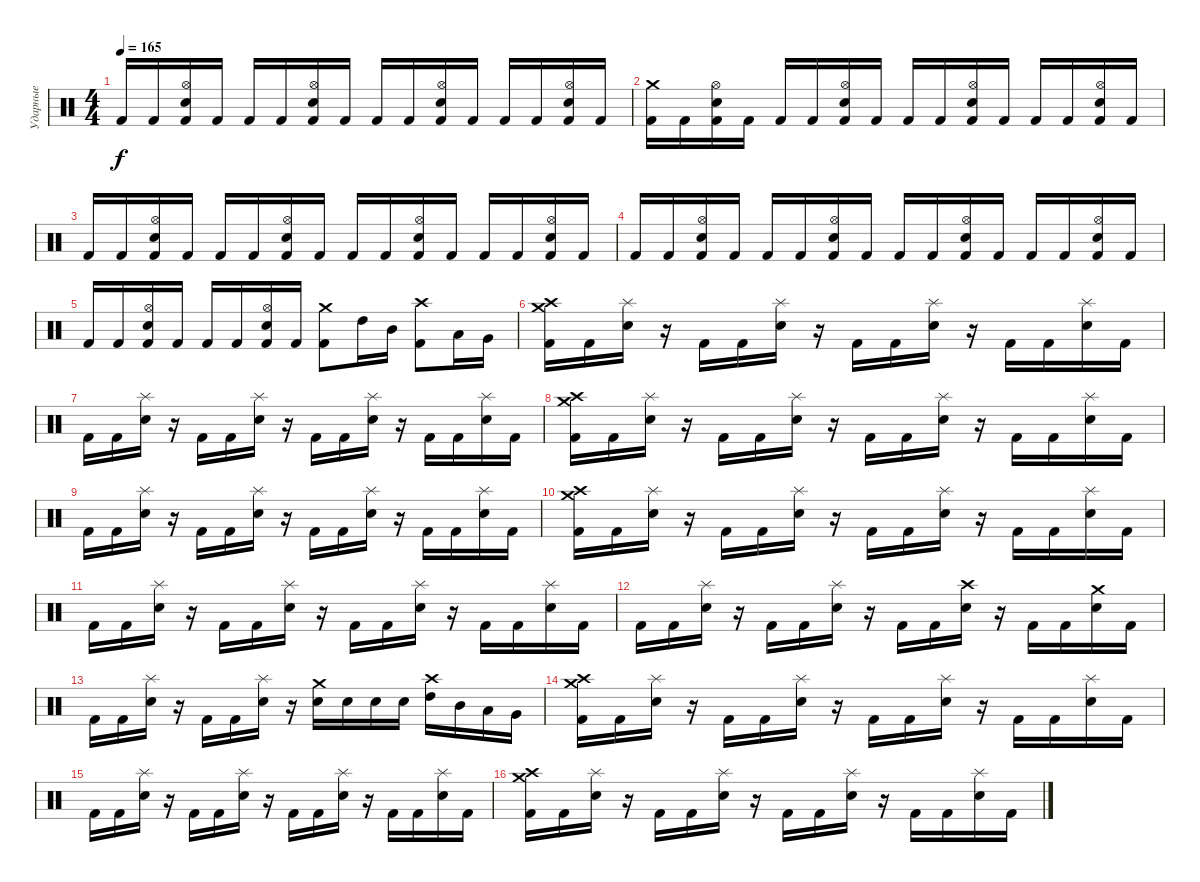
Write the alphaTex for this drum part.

\track ("Ударные" "Ударные") {instrument percussion}
\staff {score}
\articulation defaults
\ts (4 4)
\tempo 165
\clef neutral
\ks c "Kick (hit) 2".16{dy f} "Kick (hit) 2".16
("Hi-Hat (open)" "Electric Snare (hit)" "Kick (hit) 2").16 "Kick (hit) 2".16 "Kick (hit) 2".16 "Kick (hit) 2".16 ("Hi-Hat (open)" "Electric Snare (hit)" "Kick (hit) 2").16 "Kick (hit) 2".16 "Kick (hit) 2".16 "Kick (hit) 2".16 ("Hi-Hat (open)" "Electric Snare (hit)" "Kick (hit) 2").16 "Kick (hit) 2".16 "Kick (hit) 2".16 "Kick (hit) 2".16 ("Hi-Hat (open)" "Electric Snare (hit)" "Kick (hit) 2").16 "Kick (hit) 2".16 |
("Crash medium (hit)" "Kick (hit) 2").16 "Kick (hit) 2".16 ("Hi-Hat (open)" "Electric Snare (hit)" "Kick (hit) 2").16 "Kick (hit) 2".16 "Kick (hit) 2".16 "Kick (hit) 2".16 ("Hi-Hat (open)" "Electric Snare (hit)" "Kick (hit) 2").16 "Kick (hit) 2".16 "Kick (hit) 2".16 "Kick (hit) 2".16 ("Hi-Hat (open)" "Electric Snare (hit)" "Kick (hit) 2").16 "Kick (hit) 2".16 "Kick (hit) 2".16 "Kick (hit) 2".16 ("Hi-Hat (open)" "Electric Snare (hit)" "Kick (hit) 2").16 "Kick (hit) 2".16 |
"Kick (hit) 2".16 "Kick (hit) 2".16 ("Hi-Hat (open)" "Electric Snare (hit)" "Kick (hit) 2").16 "Kick (hit) 2".16 "Kick (hit) 2".16 "Kick (hit) 2".16 ("Hi-Hat (open)" "Electric Snare (hit)" "Kick (hit) 2").16 "Kick (hit) 2".16 "Kick (hit) 2".16 "Kick (hit) 2".16 ("Hi-Hat (open)" "Electric Snare (hit)" "Kick (hit) 2").16 "Kick (hit) 2".16 "Kick (hit) 2".16 "Kick (hit) 2".16 ("Hi-Hat (open)" "Electric Snare (hit)" "Kick (hit) 2").16 "Kick (hit) 2".16 |
"Kick (hit) 2".16 "Kick (hit) 2".16 ("Hi-Hat (open)" "Electric Snare (hit)" "Kick (hit) 2").16 "Kick (hit) 2".16 "Kick (hit) 2".16 "Kick (hit) 2".16 ("Hi-Hat (open)" "Electric Snare (hit)" "Kick (hit) 2").16 "Kick (hit) 2".16 "Kick (hit) 2".16 "Kick (hit) 2".16 ("Hi-Hat (open)" "Electric Snare (hit)" "Kick (hit) 2").16 "Kick (hit) 2".16 "Kick (hit) 2".16 "Kick (hit) 2".16 ("Hi-Hat (open)" "Electric Snare (hit)" "Kick (hit) 2").16 "Kick (hit) 2".16 |
"Kick (hit) 2".16 "Kick (hit) 2".16 ("Hi-Hat (open)" "Electric Snare (hit)" "Kick (hit) 2").16 "Kick (hit) 2".16 "Kick (hit) 2".16 "Kick (hit) 2".16 ("Hi-Hat (open)" "Electric Snare (hit)" "Kick (hit) 2").16 "Kick (hit) 2".16 ("Crash medium (hit)" "Kick (hit) 2").8 "High Tom (hit)".16 "Mid Tom (hit)".16 ("Crash high (hit)" "Kick (hit) 2").8 "Low Tom (hit)".16 "Very Low Tom (hit)".16 |
("Crash medium (hit)" "Crash high (hit)" "Kick (hit) 2").16 "Kick (hit) 2".16 ("Splash (hit)" "Electric Snare (hit)").16 r.16 "Kick (hit) 2".16 "Kick (hit) 2".16 ("Splash (hit)" "Electric Snare (hit)").16 r.16 "Kick (hit) 2".16 "Kick (hit) 2".16 ("Splash (hit)" "Electric Snare (hit)").16 r.16 "Kick (hit) 2".16 "Kick (hit) 2".16 ("Splash (hit)" "Electric Snare (hit)").16 "Kick (hit) 2".16 |
"Kick (hit) 2".16 "Kick (hit) 2".16 ("Splash (hit)" "Electric Snare (hit)").16 r.16 "Kick (hit) 2".16 "Kick (hit) 2".16 ("Splash (hit)" "Electric Snare (hit)").16 r.16 "Kick (hit) 2".16 "Kick (hit) 2".16 ("Splash (hit)" "Electric Snare (hit)").16 r.16 "Kick (hit) 2".16 "Kick (hit) 2".16 ("Splash (hit)" "Electric Snare (hit)").16 "Kick (hit) 2".16 |
("Crash medium (hit)" "Crash high (hit)" "Kick (hit) 2").16 "Kick (hit) 2".16 ("Splash (hit)" "Electric Snare (hit)").16 r.16 "Kick (hit) 2".16 "Kick (hit) 2".16 ("Splash (hit)" "Electric Snare (hit)").16 r.16 "Kick (hit) 2".16 "Kick (hit) 2".16 ("Splash (hit)" "Electric Snare (hit)").16 r.16 "Kick (hit) 2".16 "Kick (hit) 2".16 ("Splash (hit)" "Electric Snare (hit)").16 "Kick (hit) 2".16 |
"Kick (hit) 2".16 "Kick (hit) 2".16 ("Splash (hit)" "Electric Snare (hit)").16 r.16 "Kick (hit) 2".16 "Kick (hit) 2".16 ("Splash (hit)" "Electric Snare (hit)").16 r.16 "Kick (hit) 2".16 "Kick (hit) 2".16 ("Splash (hit)" "Electric Snare (hit)").16 r.16 "Kick (hit) 2".16 "Kick (hit) 2".16 ("Splash (hit)" "Electric Snare (hit)").16 "Kick (hit) 2".16 |
("Crash medium (hit)" "Crash high (hit)" "Kick (hit) 2").16 "Kick (hit) 2".16 ("Splash (hit)" "Electric Snare (hit)").16 r.16 "Kick (hit) 2".16 "Kick (hit) 2".16 ("Splash (hit)" "Electric Snare (hit)").16 r.16 "Kick (hit) 2".16 "Kick (hit) 2".16 ("Splash (hit)" "Electric Snare (hit)").16 r.16 "Kick (hit) 2".16 "Kick (hit) 2".16 ("Splash (hit)" "Electric Snare (hit)").16 "Kick (hit) 2".16 |
"Kick (hit) 2".16 "Kick (hit) 2".16 ("Splash (hit)" "Electric Snare (hit)").16 r.16 "Kick (hit) 2".16 "Kick (hit) 2".16 ("Splash (hit)" "Electric Snare (hit)").16 r.16 "Kick (hit) 2".16 "Kick (hit) 2".16 ("Splash (hit)" "Electric Snare (hit)").16 r.16 "Kick (hit) 2".16 "Kick (hit) 2".16 ("Splash (hit)" "Electric Snare (hit)").16 "Kick (hit) 2".16 |
"Kick (hit) 2".16 "Kick (hit) 2".16 ("Splash (hit)" "Electric Snare (hit)").16 r.16 "Kick (hit) 2".16 "Kick (hit) 2".16 ("Splash (hit)" "Electric Snare (hit)").16 r.16 "Kick (hit) 2".16 "Kick (hit) 2".16 ("Crash high (hit)" "Electric Snare (hit)").16 r.16 "Kick (hit) 2".16 "Kick (hit) 2".16 ("Crash medium (hit)" "Electric Snare (hit)").16 "Kick (hit) 2".16 |
"Kick (hit) 2".16 "Kick (hit) 2".16 ("Splash (hit)" "Electric Snare (hit)").16 r.16 "Kick (hit) 2".16 "Kick (hit) 2".16 ("Splash (hit)" "Electric Snare (hit)").16 r.16 ("Crash medium (hit)" "Electric Snare (hit)").16 "Electric Snare (hit)".16 "Electric Snare (hit)".16 "Electric Snare (hit)".16 ("Crash high (hit)" "High Tom (hit)").16 "Mid Tom (hit)".16 "Low Tom (hit)".16 "Very Low Tom (hit)".16 |
("Crash medium (hit)" "Crash high (hit)" "Kick (hit) 2").16 "Kick (hit) 2".16 ("Splash (hit)" "Electric Snare (hit)").16 r.16 "Kick (hit) 2".16 "Kick (hit) 2".16 ("Splash (hit)" "Electric Snare (hit)").16 r.16 "Kick (hit) 2".16 "Kick (hit) 2".16 ("Splash (hit)" "Electric Snare (hit)").16 r.16 "Kick (hit) 2".16 "Kick (hit) 2".16 ("Splash (hit)" "Electric Snare (hit)").16 "Kick (hit) 2".16 |
"Kick (hit) 2".16 "Kick (hit) 2".16 ("Splash (hit)" "Electric Snare (hit)").16 r.16 "Kick (hit) 2".16 "Kick (hit) 2".16 ("Splash (hit)" "Electric Snare (hit)").16 r.16 "Kick (hit) 2".16 "Kick (hit) 2".16 ("Splash (hit)" "Electric Snare (hit)").16 r.16 "Kick (hit) 2".16 "Kick (hit) 2".16 ("Splash (hit)" "Electric Snare (hit)").16 "Kick (hit) 2".16 |
("Crash medium (hit)" "Crash high (hit)" "Kick (hit) 2").16 "Kick (hit) 2".16 ("Splash (hit)" "Electric Snare (hit)").16 r.16 "Kick (hit) 2".16 "Kick (hit) 2".16 ("Splash (hit)" "Electric Snare (hit)").16 r.16 "Kick (hit) 2".16 "Kick (hit) 2".16 ("Splash (hit)" "Electric Snare (hit)").16 r.16 "Kick (hit) 2".16 "Kick (hit) 2".16 ("Splash (hit)" "Electric Snare (hit)").16 "Kick (hit) 2".16
